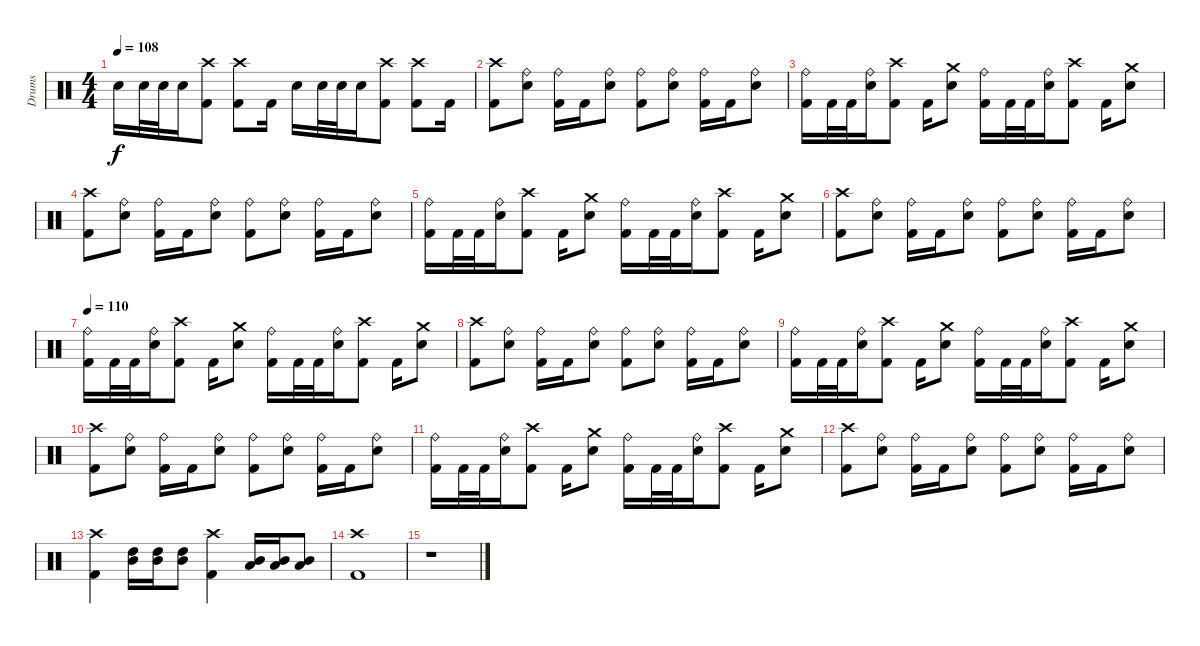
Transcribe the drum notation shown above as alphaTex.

\track ("Drums" "Drums") {instrument percussion}
\staff {score}
\articulation defaults
\ts (4 4)
\tempo 108
\clef neutral
\ks c "Snare (hit) 2".16{dy f} "Snare (hit) 2".32 "Snare (hit) 2".32 "Snare (hit) 2".16
("Crash high (hit)" "Kick (hit) 2").8 ("Crash high (hit)" "Kick (hit) 2").8 "Kick (hit) 2".16 "Snare (hit) 2".16 "Snare (hit) 2".32 "Snare (hit) 2".32 "Snare (hit) 2".16 ("Crash high (hit)" "Kick (hit) 2").8 ("Crash high (hit)" "Kick (hit) 2").8 "Kick (hit) 2".16 |
("Crash high (hit)" "Kick (hit) 2").8 ("Ride (bell)" "Snare (hit) 2").8 ("Ride (bell)" "Kick (hit) 2").16 "Kick (hit) 2".16 ("Ride (bell)" "Snare (hit) 2").8 ("Ride (bell)" "Kick (hit) 2").8 ("Ride (bell)" "Snare (hit) 2").8 ("Ride (bell)" "Kick (hit) 2").16 "Kick (hit) 2".16 ("Ride (bell)" "Snare (hit) 2").8 |
("Ride (bell)" "Kick (hit) 2").16 "Kick (hit) 2".32 "Kick (hit) 2".32 ("Ride (bell)" "Snare (hit) 2").16 ("Crash high (hit)" "Kick (hit) 2").8 "Kick (hit) 2".16 ("Crash medium (hit)" "Snare (hit) 2").8 ("Ride (bell)" "Kick (hit) 2").16 "Kick (hit) 2".32 "Kick (hit) 2".32 ("Ride (bell)" "Snare (hit) 2").16 ("Crash high (hit)" "Kick (hit) 2").8 "Kick (hit) 2".16 ("Crash medium (hit)" "Snare (hit) 2").8 |
("Crash high (hit)" "Kick (hit) 2").8 ("Ride (bell)" "Snare (hit) 2").8 ("Ride (bell)" "Kick (hit) 2").16 "Kick (hit) 2".16 ("Ride (bell)" "Snare (hit) 2").8 ("Ride (bell)" "Kick (hit) 2").8 ("Ride (bell)" "Snare (hit) 2").8 ("Ride (bell)" "Kick (hit) 2").16 "Kick (hit) 2".16 ("Ride (bell)" "Snare (hit) 2").8 |
("Ride (bell)" "Kick (hit) 2").16 "Kick (hit) 2".32 "Kick (hit) 2".32 ("Ride (bell)" "Snare (hit) 2").16 ("Crash high (hit)" "Kick (hit) 2").8 "Kick (hit) 2".16 ("Crash medium (hit)" "Snare (hit) 2").8 ("Ride (bell)" "Kick (hit) 2").16 "Kick (hit) 2".32 "Kick (hit) 2".32 ("Ride (bell)" "Snare (hit) 2").16 ("Crash high (hit)" "Kick (hit) 2").8 "Kick (hit) 2".16 ("Crash medium (hit)" "Snare (hit) 2").8 |
("Crash high (hit)" "Kick (hit) 2").8 ("Ride (bell)" "Snare (hit) 2").8 ("Ride (bell)" "Kick (hit) 2").16 "Kick (hit) 2".16 ("Ride (bell)" "Snare (hit) 2").8 ("Ride (bell)" "Kick (hit) 2").8 ("Ride (bell)" "Snare (hit) 2").8 ("Ride (bell)" "Kick (hit) 2").16 "Kick (hit) 2".16 ("Ride (bell)" "Snare (hit) 2").8 |
\tempo 110
("Ride (bell)" "Kick (hit) 2").16 "Kick (hit) 2".32 "Kick (hit) 2".32 ("Ride (bell)" "Snare (hit) 2").16 ("Crash high (hit)" "Kick (hit) 2").8 "Kick (hit) 2".16 ("Crash medium (hit)" "Snare (hit) 2").8 ("Ride (bell)" "Kick (hit) 2").16 "Kick (hit) 2".32 "Kick (hit) 2".32 ("Ride (bell)" "Snare (hit) 2").16 ("Crash high (hit)" "Kick (hit) 2").8 "Kick (hit) 2".16 ("Crash medium (hit)" "Snare (hit) 2").8 |
("Crash high (hit)" "Kick (hit) 2").8 ("Ride (bell)" "Snare (hit) 2").8 ("Ride (bell)" "Kick (hit) 2").16 "Kick (hit) 2".16 ("Ride (bell)" "Snare (hit) 2").8 ("Ride (bell)" "Kick (hit) 2").8 ("Ride (bell)" "Snare (hit) 2").8 ("Ride (bell)" "Kick (hit) 2").16 "Kick (hit) 2".16 ("Ride (bell)" "Snare (hit) 2").8 |
("Ride (bell)" "Kick (hit) 2").16 "Kick (hit) 2".32 "Kick (hit) 2".32 ("Ride (bell)" "Snare (hit) 2").16 ("Crash high (hit)" "Kick (hit) 2").8 "Kick (hit) 2".16 ("Crash medium (hit)" "Snare (hit) 2").8 ("Ride (bell)" "Kick (hit) 2").16 "Kick (hit) 2".32 "Kick (hit) 2".32 ("Ride (bell)" "Snare (hit) 2").16 ("Crash high (hit)" "Kick (hit) 2").8 "Kick (hit) 2".16 ("Crash medium (hit)" "Snare (hit) 2").8 |
("Crash high (hit)" "Kick (hit) 2").8 ("Ride (bell)" "Snare (hit) 2").8 ("Ride (bell)" "Kick (hit) 2").16 "Kick (hit) 2".16 ("Ride (bell)" "Snare (hit) 2").8 ("Ride (bell)" "Kick (hit) 2").8 ("Ride (bell)" "Snare (hit) 2").8 ("Ride (bell)" "Kick (hit) 2").16 "Kick (hit) 2".16 ("Ride (bell)" "Snare (hit) 2").8 |
("Ride (bell)" "Kick (hit) 2").16 "Kick (hit) 2".32 "Kick (hit) 2".32 ("Ride (bell)" "Snare (hit) 2").16 ("Crash high (hit)" "Kick (hit) 2").8 "Kick (hit) 2".16 ("Crash medium (hit)" "Snare (hit) 2").8 ("Ride (bell)" "Kick (hit) 2").16 "Kick (hit) 2".32 "Kick (hit) 2".32 ("Ride (bell)" "Snare (hit) 2").16 ("Crash high (hit)" "Kick (hit) 2").8 "Kick (hit) 2".16 ("Crash medium (hit)" "Snare (hit) 2").8 |
("Crash high (hit)" "Kick (hit) 2").8 ("Ride (bell)" "Snare (hit) 2").8 ("Ride (bell)" "Kick (hit) 2").16 "Kick (hit) 2".16 ("Ride (bell)" "Snare (hit) 2").8 ("Ride (bell)" "Kick (hit) 2").8 ("Ride (bell)" "Snare (hit) 2").8 ("Ride (bell)" "Kick (hit) 2").16 "Kick (hit) 2".16 ("Ride (bell)" "Snare (hit) 2").8 |
("Crash high (hit)" "Kick (hit) 2").4 ("High Tom (hit)" "Mid Tom (hit)").16 ("High Tom (hit)" "Mid Tom (hit)").16 ("High Tom (hit)" "Mid Tom (hit)").8 ("Crash high (hit)" "Kick (hit) 2").4 ("Mid Tom (hit)" "Low Tom (hit)").16 ("Mid Tom (hit)" "Low Tom (hit)").16 ("Mid Tom (hit)" "Low Tom (hit)").8 |
("Crash high (hit)" "Kick (hit) 2").1 |
r.1
